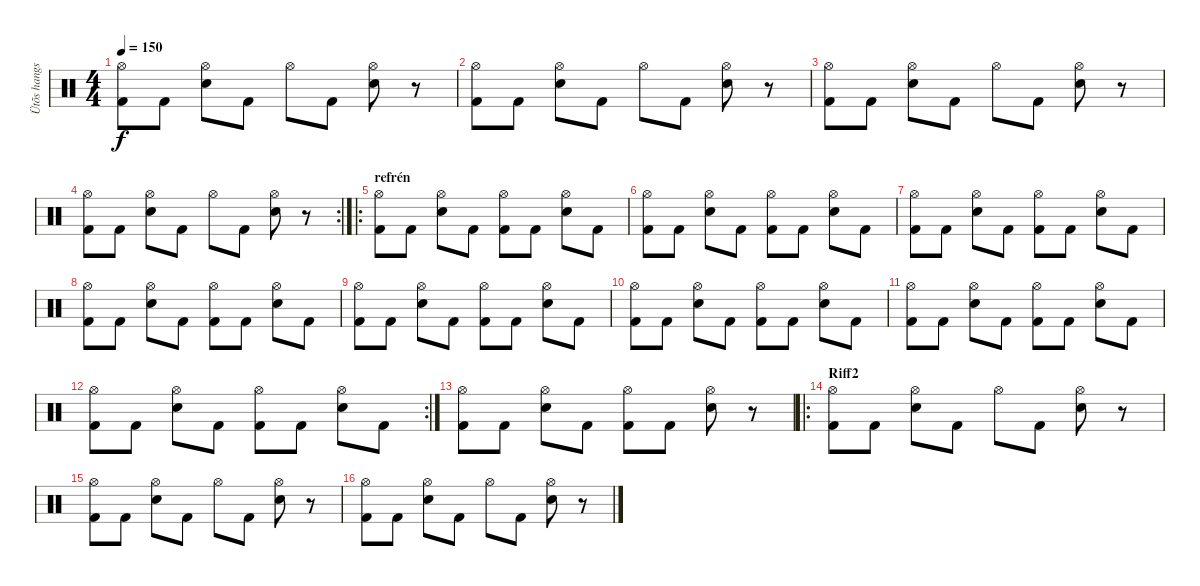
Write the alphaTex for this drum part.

\track ("Ütõs hangszer" "Ütõs hangs") {instrument percussion}
\staff {score}
\articulation defaults
\ts (4 4)
\tempo 150
\clef neutral
\ks c
("Hi-Hat (open)" "Kick (hit) 2").8{dy f} "Kick (hit) 2".8 ("Hi-Hat (open)" "Electric Snare (hit)").8 "Kick (hit) 2".8 "Hi-Hat (open)".8 "Kick (hit) 2".8 ("Hi-Hat (open)" "Electric Snare (hit)").8 r.8 |
("Hi-Hat (open)" "Kick (hit) 2").8 "Kick (hit) 2".8 ("Hi-Hat (open)" "Electric Snare (hit)").8 "Kick (hit) 2".8 "Hi-Hat (open)".8 "Kick (hit) 2".8 ("Hi-Hat (open)" "Electric Snare (hit)").8 r.8 |
("Hi-Hat (open)" "Kick (hit) 2").8 "Kick (hit) 2".8 ("Hi-Hat (open)" "Electric Snare (hit)").8 "Kick (hit) 2".8 "Hi-Hat (open)".8 "Kick (hit) 2".8 ("Hi-Hat (open)" "Electric Snare (hit)").8 r.8 |
\rc 2
("Hi-Hat (open)" "Kick (hit) 2").8 "Kick (hit) 2".8 ("Hi-Hat (open)" "Electric Snare (hit)").8 "Kick (hit) 2".8 "Hi-Hat (open)".8 "Kick (hit) 2".8 ("Hi-Hat (open)" "Electric Snare (hit)").8 r.8 |
\ro
\section ("" "refrén")
("Hi-Hat (open)" "Kick (hit) 2").8 "Kick (hit) 2".8 ("Hi-Hat (open)" "Electric Snare (hit)").8 "Kick (hit) 2".8 ("Hi-Hat (open)" "Kick (hit) 2").8 "Kick (hit) 2".8 ("Hi-Hat (open)" "Electric Snare (hit)").8 "Kick (hit) 2".8 |
("Hi-Hat (open)" "Kick (hit) 2").8 "Kick (hit) 2".8 ("Hi-Hat (open)" "Electric Snare (hit)").8 "Kick (hit) 2".8 ("Hi-Hat (open)" "Kick (hit) 2").8 "Kick (hit) 2".8 ("Hi-Hat (open)" "Electric Snare (hit)").8 "Kick (hit) 2".8 |
("Hi-Hat (open)" "Kick (hit) 2").8 "Kick (hit) 2".8 ("Hi-Hat (open)" "Electric Snare (hit)").8 "Kick (hit) 2".8 ("Hi-Hat (open)" "Kick (hit) 2").8 "Kick (hit) 2".8 ("Hi-Hat (open)" "Electric Snare (hit)").8 "Kick (hit) 2".8 |
("Hi-Hat (open)" "Kick (hit) 2").8 "Kick (hit) 2".8 ("Hi-Hat (open)" "Electric Snare (hit)").8 "Kick (hit) 2".8 ("Hi-Hat (open)" "Kick (hit) 2").8 "Kick (hit) 2".8 ("Hi-Hat (open)" "Electric Snare (hit)").8 "Kick (hit) 2".8 |
("Hi-Hat (open)" "Kick (hit) 2").8 "Kick (hit) 2".8 ("Hi-Hat (open)" "Electric Snare (hit)").8 "Kick (hit) 2".8 ("Hi-Hat (open)" "Kick (hit) 2").8 "Kick (hit) 2".8 ("Hi-Hat (open)" "Electric Snare (hit)").8 "Kick (hit) 2".8 |
("Hi-Hat (open)" "Kick (hit) 2").8 "Kick (hit) 2".8 ("Hi-Hat (open)" "Electric Snare (hit)").8 "Kick (hit) 2".8 ("Hi-Hat (open)" "Kick (hit) 2").8 "Kick (hit) 2".8 ("Hi-Hat (open)" "Electric Snare (hit)").8 "Kick (hit) 2".8 |
("Hi-Hat (open)" "Kick (hit) 2").8 "Kick (hit) 2".8 ("Hi-Hat (open)" "Electric Snare (hit)").8 "Kick (hit) 2".8 ("Hi-Hat (open)" "Kick (hit) 2").8 "Kick (hit) 2".8 ("Hi-Hat (open)" "Electric Snare (hit)").8 "Kick (hit) 2".8 |
\rc 2
("Hi-Hat (open)" "Kick (hit) 2").8 "Kick (hit) 2".8 ("Hi-Hat (open)" "Electric Snare (hit)").8 "Kick (hit) 2".8 ("Hi-Hat (open)" "Kick (hit) 2").8 "Kick (hit) 2".8 ("Hi-Hat (open)" "Electric Snare (hit)").8 "Kick (hit) 2".8 |
("Hi-Hat (open)" "Kick (hit) 2").8 "Kick (hit) 2".8 ("Hi-Hat (open)" "Electric Snare (hit)").8 "Kick (hit) 2".8 ("Hi-Hat (open)" "Kick (hit) 2").8 "Kick (hit) 2".8 ("Hi-Hat (open)" "Electric Snare (hit)").8 r.8 |
\ro
\section ("" "Riff2")
("Hi-Hat (open)" "Kick (hit) 2").8 "Kick (hit) 2".8 ("Hi-Hat (open)" "Electric Snare (hit)").8 "Kick (hit) 2".8 "Hi-Hat (open)".8 "Kick (hit) 2".8 ("Hi-Hat (open)" "Electric Snare (hit)").8 r.8 |
("Hi-Hat (open)" "Kick (hit) 2").8 "Kick (hit) 2".8 ("Hi-Hat (open)" "Electric Snare (hit)").8 "Kick (hit) 2".8 "Hi-Hat (open)".8 "Kick (hit) 2".8 ("Hi-Hat (open)" "Electric Snare (hit)").8 r.8 |
("Hi-Hat (open)" "Kick (hit) 2").8 "Kick (hit) 2".8 ("Hi-Hat (open)" "Electric Snare (hit)").8 "Kick (hit) 2".8 "Hi-Hat (open)".8 "Kick (hit) 2".8 ("Hi-Hat (open)" "Electric Snare (hit)").8 r.8
